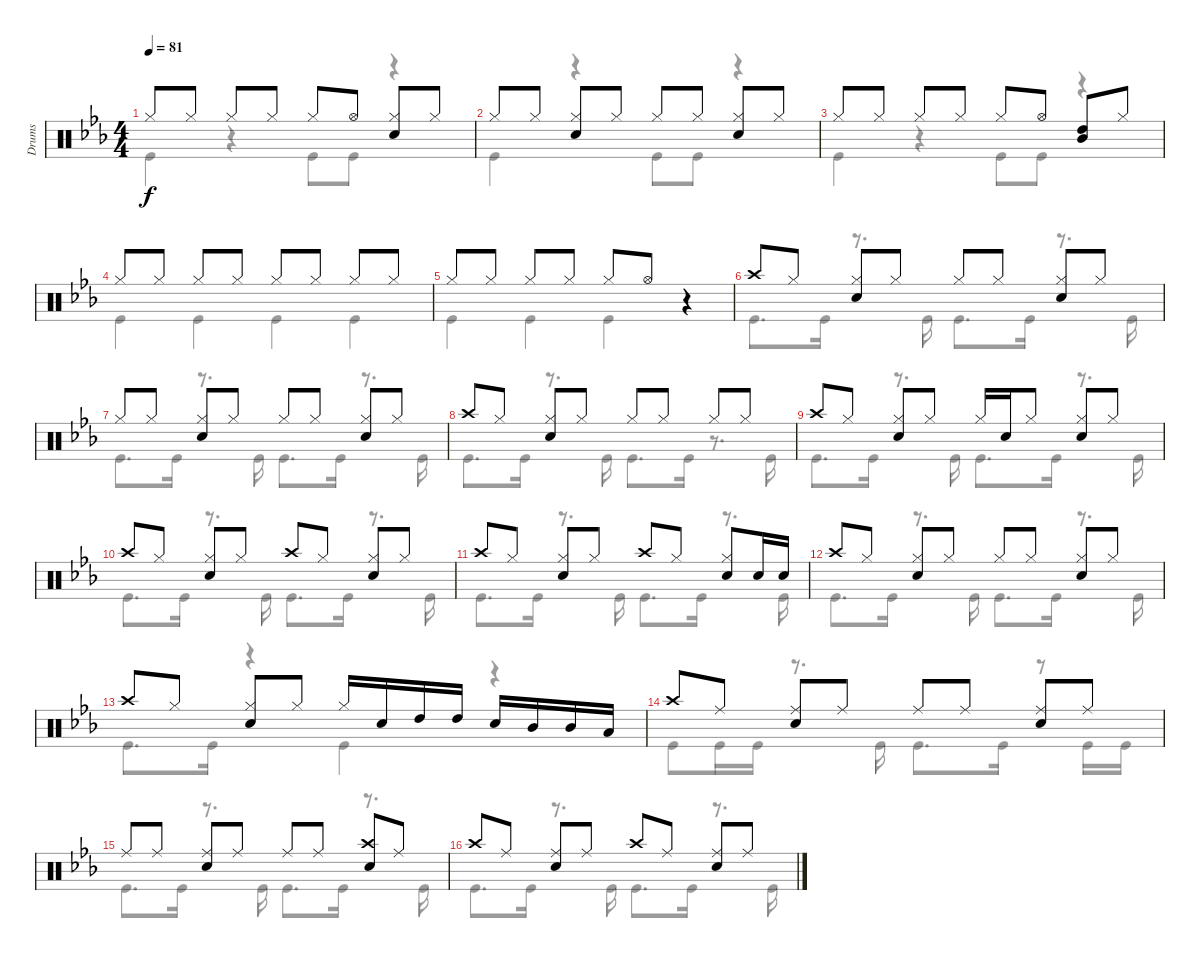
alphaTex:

\track ("Drums" "Drums") {instrument percussion}
\staff {score}
\articulation defaults
\voice
\ts (4 4)
\tempo 81
\clef neutral
\ks eb "Hi-Hat (closed)".8{dy f beam Up} "Hi-Hat (closed)".8{beam Up} "Hi-Hat (closed)".8{beam Up} "Hi-Hat (closed)".8{beam Up} "Hi-Hat (closed)".8{beam Up} "Hi-Hat (open)".8{beam Up}
("Snare (hit) 2" "Hi-Hat (closed)").8{beam Up} "Hi-Hat (closed)".8{beam Up} |
"Hi-Hat (closed)".8{beam Up} "Hi-Hat (closed)".8{beam Up} ("Hi-Hat (closed)" "Snare (hit) 2").8{beam Up} "Hi-Hat (closed)".8{beam Up} "Hi-Hat (closed)".8{beam Up} "Hi-Hat (closed)".8{beam Up} ("Hi-Hat (closed)" "Snare (hit) 2").8{beam Up} "Hi-Hat (closed)".8{beam Up} |
"Hi-Hat (closed)".8{beam Up} "Hi-Hat (closed)".8{beam Up} "Hi-Hat (closed)".8{beam Up} "Hi-Hat (closed)".8{beam Up} "Hi-Hat (closed)".8{beam Up} "Hi-Hat (open)".8{beam Up} ("High Tom (hit)" "Mid Tom (hit)").8{beam Up} "Hi-Hat (closed)".8{beam Up} |
"Hi-Hat (closed)".8{beam Up} "Hi-Hat (closed)".8{beam Up} "Hi-Hat (closed)".8{beam Up} "Hi-Hat (closed)".8{beam Up} "Hi-Hat (closed)".8{beam Up} "Hi-Hat (closed)".8{beam Up} "Hi-Hat (closed)".8{beam Up} "Hi-Hat (closed)".8{beam Up} |
"Hi-Hat (closed)".8{beam Up} "Hi-Hat (closed)".8{beam Up} "Hi-Hat (closed)".8{beam Up} "Hi-Hat (closed)".8{beam Up} "Hi-Hat (closed)".8{beam Up} "Hi-Hat (open)".8{beam Up} r.4 |
"Crash high (hit)".8{beam Up} "Hi-Hat (closed)".8{beam Up} ("Hi-Hat (closed)" "Snare (hit) 2").8{beam Up} "Hi-Hat (closed)".8{beam Up} "Hi-Hat (closed)".8{beam Up} "Hi-Hat (closed)".8{beam Up} ("Hi-Hat (closed)" "Snare (hit) 2").8{beam Up} "Hi-Hat (closed)".8{beam Up} |
"Hi-Hat (closed)".8{beam Up} "Hi-Hat (closed)".8{beam Up} ("Hi-Hat (closed)" "Snare (hit) 2").8{beam Up} "Hi-Hat (closed)".8{beam Up} "Hi-Hat (closed)".8{beam Up} "Hi-Hat (closed)".8{beam Up} ("Hi-Hat (closed)" "Snare (hit) 2").8{beam Up} "Hi-Hat (closed)".8{beam Up} |
"Crash high (hit)".8{beam Up} "Hi-Hat (closed)".8{beam Up} ("Hi-Hat (closed)" "Snare (hit) 2").8{beam Up} "Hi-Hat (closed)".8{beam Up} "Hi-Hat (closed)".8{beam Up} "Hi-Hat (closed)".8{beam Up} "Hi-Hat (closed)".8{beam Up} "Hi-Hat (closed)".8{beam Up} |
"Crash high (hit)".8{beam Up} "Hi-Hat (closed)".8{beam Up} ("Hi-Hat (closed)" "Snare (hit) 2").8{beam Up} "Hi-Hat (closed)".8{beam Up} "Hi-Hat (closed)".16{beam Up} "Snare (hit) 2".16{beam Up} "Hi-Hat (closed)".8{beam Up} ("Hi-Hat (closed)" "Snare (hit) 2").8{beam Up} "Hi-Hat (closed)".8{beam Up} |
"Crash high (hit)".8{beam Up} "Hi-Hat (closed)".8{beam Up} ("Hi-Hat (closed)" "Snare (hit) 2").8{beam Up} "Hi-Hat (closed)".8{beam Up} "Crash high (hit)".8{beam Up} "Hi-Hat (closed)".8{beam Up} ("Hi-Hat (closed)" "Snare (hit) 2").8{beam Up} "Hi-Hat (closed)".8{beam Up} |
"Crash high (hit)".8{beam Up} "Hi-Hat (closed)".8{beam Up} ("Hi-Hat (closed)" "Snare (hit) 2").8{beam Up} "Hi-Hat (closed)".8{beam Up} "Crash high (hit)".8{beam Up} "Hi-Hat (closed)".8{beam Up} ("Hi-Hat (closed)" "Snare (hit) 2").8{beam Up} "Snare (hit) 2".16{beam Up} "Snare (hit) 2".16{beam Up} |
"Crash high (hit)".8{beam Up} "Hi-Hat (closed)".8{beam Up} ("Hi-Hat (closed)" "Snare (hit) 2").8{beam Up} "Hi-Hat (closed)".8{beam Up} "Hi-Hat (closed)".8{beam Up} "Hi-Hat (closed)".8{beam Up} ("Hi-Hat (closed)" "Snare (hit) 2").8{beam Up} "Hi-Hat (closed)".8{beam Up} |
"Crash high (hit)".8{beam Up} "Hi-Hat (closed)".8{beam Up} ("Hi-Hat (closed)" "Snare (hit) 2").8{beam Up} "Hi-Hat (closed)".8{beam Up} "Hi-Hat (closed)".16{beam Up} "Snare (hit) 2".16{beam Up} "High Tom (hit)".16{beam Up} "High Tom (hit)".16{beam Up} "Snare (hit) 2".16{beam Up} "Mid Tom (hit)".16{beam Up} "Mid Tom (hit)".16{beam Up} "Low Tom (hit)".16{beam Up} |
"Crash high (hit)".8{beam Up} "Ride (middle)".8{beam Up} ("Ride (middle)" "Snare (hit) 2").8{beam Up} "Ride (middle)".8{beam Up} "Ride (middle)".8{beam Up} "Ride (middle)".8{beam Up} ("Ride (middle)" "Snare (hit) 2").8{beam Up} "Ride (middle)".8{beam Up} |
"Ride (middle)".8{beam Up} "Ride (middle)".8{beam Up} ("Ride (middle)" "Snare (hit) 2").8{beam Up} "Ride (middle)".8{beam Up} "Ride (middle)".8{beam Up} "Ride (middle)".8{beam Up} ("Snare (hit) 2" "Crash high (hit)").8{beam Up} "Ride (middle)".8{beam Up} |
"Crash high (hit)".8{beam Up} "Ride (middle)".8{beam Up} ("Ride (middle)" "Snare (hit) 2").8{beam Up} "Ride (middle)".8{beam Up} "Crash high (hit)".8{beam Up} "Ride (middle)".8{beam Up} ("Ride (middle)" "Snare (hit) 2").8{beam Up} "Ride (middle)".8{beam Up}
\voice
\clef neutral
\ottava regular
\simile none
\ks eb "Kick (hit)".4{dy f}
r.4 "Kick (hit)".8 "Kick (hit)".8 r.4 |
"Kick (hit)".4 r.4 "Kick (hit)".8 "Kick (hit)".8 r.4 |
"Kick (hit)".4 r.4 "Kick (hit)".8 "Kick (hit)".8 r.4 |
"Kick (hit)".4 "Kick (hit)".4 "Kick (hit)".4 "Kick (hit)".4 |
"Kick (hit)".4 "Kick (hit)".4 "Kick (hit)".4 r.4 |
"Kick (hit)".8{d} "Kick (hit)".16 r.8{d} "Kick (hit)".16 "Kick (hit)".8{d} "Kick (hit)".16 r.8{d} "Kick (hit)".16 |
"Kick (hit)".8{d} "Kick (hit)".16 r.8{d} "Kick (hit)".16 "Kick (hit)".8{d} "Kick (hit)".16 r.8{d} "Kick (hit)".16 |
"Kick (hit)".8{d} "Kick (hit)".16 r.8{d} "Kick (hit)".16 "Kick (hit)".8{d} "Kick (hit)".16 r.8{d} "Kick (hit)".16 |
"Kick (hit)".8{d} "Kick (hit)".16 r.8{d} "Kick (hit)".16 "Kick (hit)".8{d} "Kick (hit)".16 r.8{d} "Kick (hit)".16 |
"Kick (hit)".8{d} "Kick (hit)".16 r.8{d} "Kick (hit)".16 "Kick (hit)".8{d} "Kick (hit)".16 r.8{d} "Kick (hit)".16 |
"Kick (hit)".8{d} "Kick (hit)".16 r.8{d} "Kick (hit)".16 "Kick (hit)".8{d} "Kick (hit)".16 r.8{d} "Kick (hit)".16 |
"Kick (hit)".8{d} "Kick (hit)".16 r.8{d} "Kick (hit)".16 "Kick (hit)".8{d} "Kick (hit)".16 r.8{d} "Kick (hit)".16 |
"Kick (hit)".8{d} "Kick (hit)".16 r.4 "Kick (hit)".4 r.4 |
"Kick (hit)".8 "Kick (hit)".16 "Kick (hit)".16 r.8{d} "Kick (hit)".16 "Kick (hit)".8{d} "Kick (hit)".16 r.8 "Kick (hit)".16 "Kick (hit)".16 |
"Kick (hit)".8{d} "Kick (hit)".16 r.8{d} "Kick (hit)".16 "Kick (hit)".8{d} "Kick (hit)".16 r.8{d} "Kick (hit)".16 |
"Kick (hit)".8{d} "Kick (hit)".16 r.8{d} "Kick (hit)".16 "Kick (hit)".8{d} "Kick (hit)".16 r.8{d} "Kick (hit)".16
